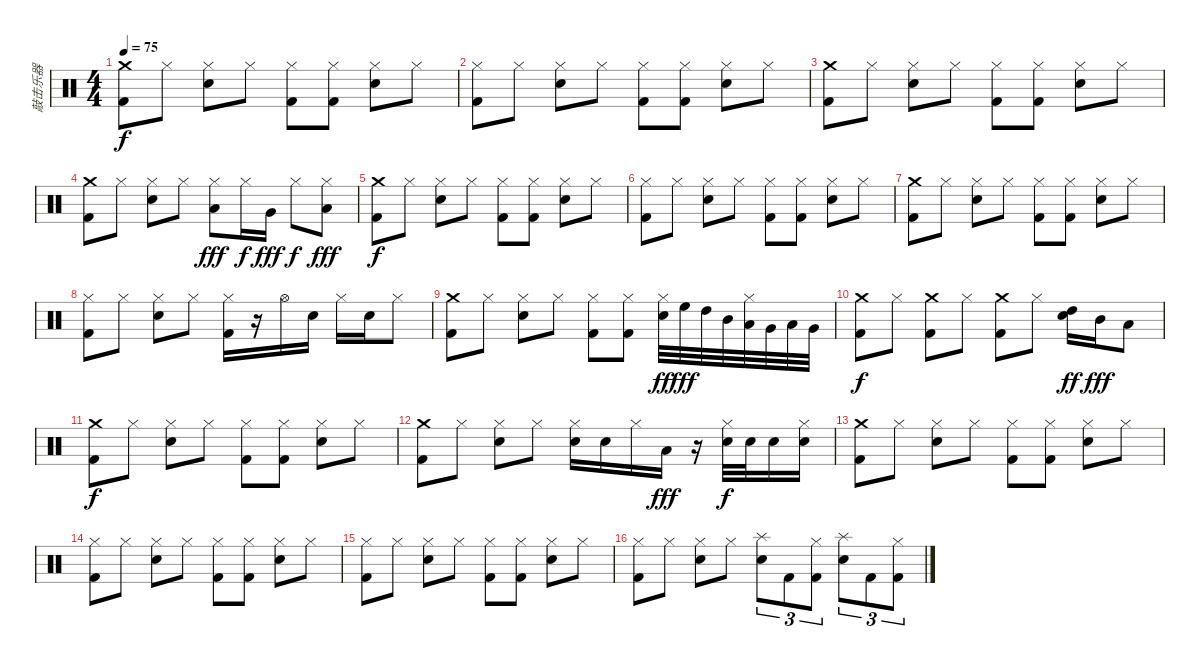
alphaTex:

\track ("敲击乐器" "敲击乐器") {instrument percussion}
\staff {score}
\articulation defaults
\ts (4 4)
\tempo 75
\clef neutral
\ks c
("Crash medium (hit)" "Kick (hit) 2").8{dy f} "Hi-Hat (closed)".8 ("Hi-Hat (closed)" "Electric Snare (hit)").8 "Hi-Hat (closed)".8 ("Hi-Hat (closed)" "Kick (hit) 2").8 ("Hi-Hat (closed)" "Kick (hit) 2").8 ("Hi-Hat (closed)" "Electric Snare (hit)").8 "Hi-Hat (closed)".8 |
("Hi-Hat (closed)" "Kick (hit) 2").8 "Hi-Hat (closed)".8 ("Hi-Hat (closed)" "Electric Snare (hit)").8 "Hi-Hat (closed)".8 ("Hi-Hat (closed)" "Kick (hit) 2").8 ("Hi-Hat (closed)" "Kick (hit) 2").8 ("Hi-Hat (closed)" "Electric Snare (hit)").8 "Hi-Hat (closed)".8 |
("Crash medium (hit)" "Kick (hit) 2").8 "Hi-Hat (closed)".8 ("Hi-Hat (closed)" "Electric Snare (hit)").8 "Hi-Hat (closed)".8 ("Hi-Hat (closed)" "Kick (hit) 2").8 ("Hi-Hat (closed)" "Kick (hit) 2").8 ("Hi-Hat (closed)" "Electric Snare (hit)").8 "Hi-Hat (closed)".8 |
("Crash medium (hit)" "Kick (hit) 2").8 "Hi-Hat (closed)".8 ("Hi-Hat (closed)" "Electric Snare (hit)").8 "Hi-Hat (closed)".8 ("Hi-Hat (closed)" "Low Tom (hit)").8{dy fff} "Hi-Hat (closed)".16{dy f} "Very Low Tom (hit)".16{dy fff} "Hi-Hat (closed)".8{dy f} ("Hi-Hat (closed)" "Low Floor Tom (hit)").8{dy fff} |
("Crash medium (hit)" "Kick (hit) 2").8{dy f} "Hi-Hat (closed)".8 ("Hi-Hat (closed)" "Electric Snare (hit)").8 "Hi-Hat (closed)".8 ("Hi-Hat (closed)" "Kick (hit) 2").8 ("Hi-Hat (closed)" "Kick (hit) 2").8 ("Hi-Hat (closed)" "Electric Snare (hit)").8 "Hi-Hat (closed)".8 |
("Hi-Hat (closed)" "Kick (hit) 2").8 "Hi-Hat (closed)".8 ("Hi-Hat (closed)" "Electric Snare (hit)").8 "Hi-Hat (closed)".8 ("Hi-Hat (closed)" "Kick (hit) 2").8 ("Hi-Hat (closed)" "Kick (hit) 2").8 ("Hi-Hat (closed)" "Electric Snare (hit)").8 "Hi-Hat (closed)".8 |
("Crash medium (hit)" "Kick (hit) 2").8 "Hi-Hat (closed)".8 ("Hi-Hat (closed)" "Electric Snare (hit)").8 "Hi-Hat (closed)".8 ("Hi-Hat (closed)" "Kick (hit) 2").8 ("Hi-Hat (closed)" "Kick (hit) 2").8 ("Hi-Hat (closed)" "Electric Snare (hit)").8 "Hi-Hat (closed)".8 |
("Hi-Hat (closed)" "Kick (hit) 2").8 "Hi-Hat (closed)".8 ("Hi-Hat (closed)" "Electric Snare (hit)").8 "Hi-Hat (closed)".8 ("Hi-Hat (closed)" "Kick (hit) 2").16 r.16 "Hi-Hat (open)".16 "Electric Snare (hit)".16 "Hi-Hat (closed)".16 "Electric Snare (hit)".16 "Hi-Hat (closed)".8 |
("Crash medium (hit)" "Kick (hit) 2").8 "Hi-Hat (closed)".8 ("Hi-Hat (closed)" "Electric Snare (hit)").8 "Hi-Hat (closed)".8 ("Hi-Hat (closed)" "Kick (hit) 2").8 ("Hi-Hat (closed)" "Kick (hit) 2").8 ("Hi-Hat (closed)" "Electric Snare (hit)").32{dy ff} "High Floor Tom (hit)".32{dy fff} "High Tom (hit)".32 "Mid Tom (hit)".32 ("Hi-Hat (closed)" "Low Tom (hit)").32 "Very Low Tom (hit)".32 "Low Floor Tom (hit)".32 "Very Low Tom (hit)".32 |
("Crash medium (hit)" "Kick (hit) 2").8{dy f} "Hi-Hat (closed)".8 ("Crash medium (hit)" "Kick (hit) 2").8 "Hi-Hat (closed)".8 ("Crash medium (hit)" "Kick (hit) 2").8 "Hi-Hat (closed)".8 ("High Tom (hit)" "Electric Snare (hit)").16{dy ff} "Mid Tom (hit)".16{dy fff} "Low Tom (hit)".8 |
("Crash medium (hit)" "Kick (hit) 2").8{dy f} "Hi-Hat (closed)".8 ("Hi-Hat (closed)" "Electric Snare (hit)").8 "Hi-Hat (closed)".8 ("Hi-Hat (closed)" "Kick (hit) 2").8 ("Hi-Hat (closed)" "Kick (hit) 2").8 ("Hi-Hat (closed)" "Electric Snare (hit)").8 "Hi-Hat (closed)".8 |
("Crash medium (hit)" "Kick (hit) 2").8 "Hi-Hat (closed)".8 ("Hi-Hat (closed)" "Electric Snare (hit)").8 "Hi-Hat (closed)".8 ("Hi-Hat (closed)" "Electric Snare (hit)").16 "Electric Snare (hit)".16 "Hi-Hat (closed)".16 "Low Tom (hit)".16{dy fff} r.16 ("Hi-Hat (closed)" "Electric Snare (hit)").32{dy f} "Electric Snare (hit)".32 "Electric Snare (hit)".16 ("Hi-Hat (closed)" "Electric Snare (hit)").16 |
("Crash medium (hit)" "Kick (hit) 2").8 "Hi-Hat (closed)".8 ("Hi-Hat (closed)" "Electric Snare (hit)").8 "Hi-Hat (closed)".8 ("Hi-Hat (closed)" "Kick (hit) 2").8 ("Hi-Hat (closed)" "Kick (hit) 2").8 ("Hi-Hat (closed)" "Electric Snare (hit)").8 "Hi-Hat (closed)".8 |
("Hi-Hat (closed)" "Kick (hit) 2").8 "Hi-Hat (closed)".8 ("Hi-Hat (closed)" "Electric Snare (hit)").8 "Hi-Hat (closed)".8 ("Hi-Hat (closed)" "Kick (hit) 2").8 ("Hi-Hat (closed)" "Kick (hit) 2").8 ("Hi-Hat (closed)" "Electric Snare (hit)").8 "Hi-Hat (closed)".8 |
("Hi-Hat (closed)" "Kick (hit) 2").8 "Hi-Hat (closed)".8 ("Hi-Hat (closed)" "Electric Snare (hit)").8 "Hi-Hat (closed)".8 ("Hi-Hat (closed)" "Kick (hit) 2").8 ("Hi-Hat (closed)" "Kick (hit) 2").8 ("Hi-Hat (closed)" "Electric Snare (hit)").8 "Hi-Hat (closed)".8 |
("Hi-Hat (closed)" "Kick (hit) 2").8 "Hi-Hat (closed)".8 ("Hi-Hat (closed)" "Electric Snare (hit)").8 "Hi-Hat (closed)".8 ("Splash (hit)" "Electric Snare (hit)").8{tu (3 2)} "Kick (hit) 2".8{tu (3 2)} ("Hi-Hat (closed)" "Kick (hit) 2").8{tu (3 2)} ("Splash (hit)" "Electric Snare (hit)").8{tu (3 2)} "Kick (hit) 2".8{tu (3 2)} ("Hi-Hat (closed)" "Kick (hit) 2").8{tu (3 2)}
